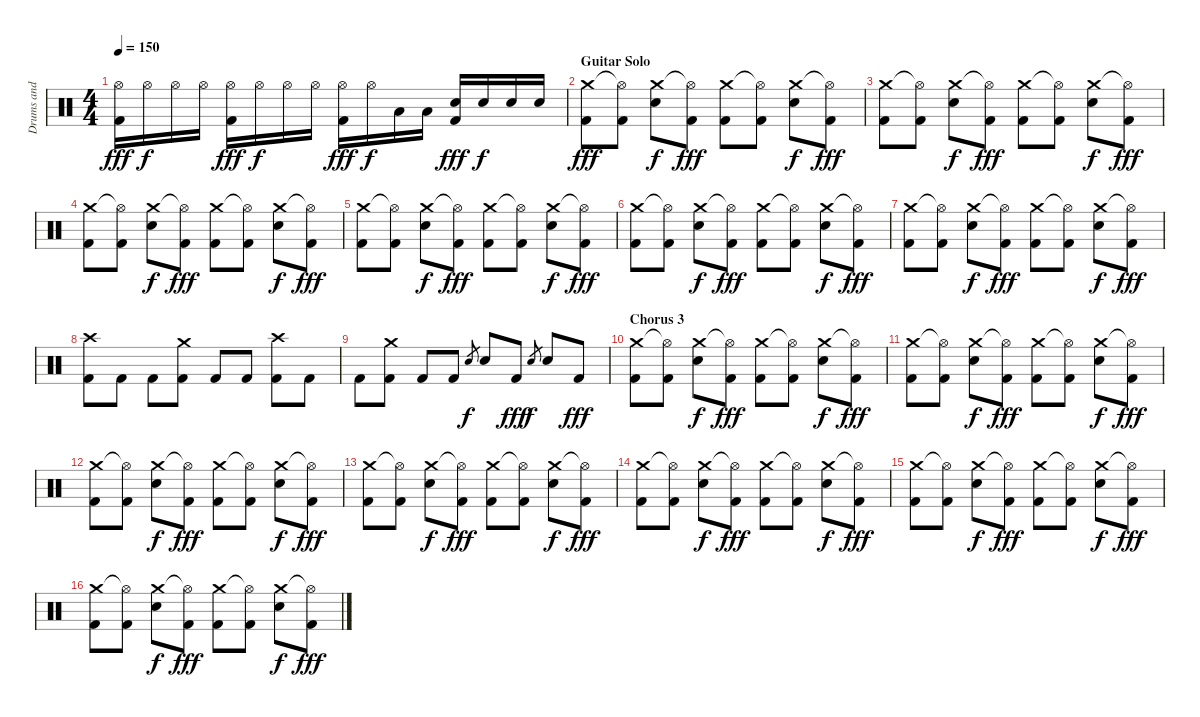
\track ("Drums and Percussion" "Drums and ") {instrument percussion}
\staff {score}
\articulation defaults
\ts (4 4)
\tempo 150
\clef neutral
\ks c
("Hi-Hat (open)" "Kick (hit) 2").16{dy fff} "Hi-Hat (open)".16{dy f} "Hi-Hat (open)".16 "Hi-Hat (open)".16 ("Hi-Hat (open)" "Kick (hit) 2").16{dy fff} "Hi-Hat (open)".16{dy f} "Hi-Hat (open)".16 "Hi-Hat (open)".16 ("Hi-Hat (open)" "Kick (hit) 2").16{dy fff} "Hi-Hat (open)".16{dy f} "Low Tom (hit)".16 "Low Tom (hit)".16 ("Electric Snare (hit)" "Kick (hit) 2").16{dy fff} "Electric Snare (hit)".16{dy f} "Electric Snare (hit)".16 "Electric Snare (hit)".16 |
\section ("" "Guitar Solo")
("Crash medium (hit)" "Kick (hit) 2").8{dy fff} ("Hi-Hat (open)"{t} "Kick (hit) 2").8 ("Crash medium (hit)" "Electric Snare (hit)").8{dy f} ("Hi-Hat (open)"{t} "Kick (hit) 2").8{dy fff} ("Crash medium (hit)" "Kick (hit) 2").8 ("Hi-Hat (open)"{t} "Kick (hit) 2").8 ("Crash medium (hit)" "Electric Snare (hit)").8{dy f} ("Hi-Hat (open)"{t} "Kick (hit) 2").8{dy fff} |
("Crash medium (hit)" "Kick (hit) 2").8 ("Hi-Hat (open)"{t} "Kick (hit) 2").8 ("Crash medium (hit)" "Electric Snare (hit)").8{dy f} ("Hi-Hat (open)"{t} "Kick (hit) 2").8{dy fff} ("Crash medium (hit)" "Kick (hit) 2").8 ("Hi-Hat (open)"{t} "Kick (hit) 2").8 ("Crash medium (hit)" "Electric Snare (hit)").8{dy f} ("Hi-Hat (open)"{t} "Kick (hit) 2").8{dy fff} |
("Crash medium (hit)" "Kick (hit) 2").8 ("Hi-Hat (open)"{t} "Kick (hit) 2").8 ("Crash medium (hit)" "Electric Snare (hit)").8{dy f} ("Hi-Hat (open)"{t} "Kick (hit) 2").8{dy fff} ("Crash medium (hit)" "Kick (hit) 2").8 ("Hi-Hat (open)"{t} "Kick (hit) 2").8 ("Crash medium (hit)" "Electric Snare (hit)").8{dy f} ("Hi-Hat (open)"{t} "Kick (hit) 2").8{dy fff} |
("Crash medium (hit)" "Kick (hit) 2").8 ("Hi-Hat (open)"{t} "Kick (hit) 2").8 ("Crash medium (hit)" "Electric Snare (hit)").8{dy f} ("Hi-Hat (open)"{t} "Kick (hit) 2").8{dy fff} ("Crash medium (hit)" "Kick (hit) 2").8 ("Hi-Hat (open)"{t} "Kick (hit) 2").8 ("Crash medium (hit)" "Electric Snare (hit)").8{dy f} ("Hi-Hat (open)"{t} "Kick (hit) 2").8{dy fff} |
("Crash medium (hit)" "Kick (hit) 2").8 ("Hi-Hat (open)"{t} "Kick (hit) 2").8 ("Crash medium (hit)" "Electric Snare (hit)").8{dy f} ("Hi-Hat (open)"{t} "Kick (hit) 2").8{dy fff} ("Crash medium (hit)" "Kick (hit) 2").8 ("Hi-Hat (open)"{t} "Kick (hit) 2").8 ("Crash medium (hit)" "Electric Snare (hit)").8{dy f} ("Hi-Hat (open)"{t} "Kick (hit) 2").8{dy fff} |
("Crash medium (hit)" "Kick (hit) 2").8 ("Hi-Hat (open)"{t} "Kick (hit) 2").8 ("Crash medium (hit)" "Electric Snare (hit)").8{dy f} ("Hi-Hat (open)"{t} "Kick (hit) 2").8{dy fff} ("Crash medium (hit)" "Kick (hit) 2").8 ("Hi-Hat (open)"{t} "Kick (hit) 2").8 ("Crash medium (hit)" "Electric Snare (hit)").8{dy f} ("Hi-Hat (open)"{t} "Kick (hit) 2").8{dy fff} |
("Crash high (hit)" "Kick (hit) 2").8 "Kick (hit) 2".8 "Kick (hit) 2".8 ("Crash medium (hit)" "Kick (hit) 2").8 "Kick (hit) 2".8 "Kick (hit) 2".8 ("Crash high (hit)" "Kick (hit) 2").8 "Kick (hit) 2".8 |
"Kick (hit) 2".8 ("Crash medium (hit)" "Kick (hit) 2").8 "Kick (hit) 2".8 "Kick (hit) 2".8 "Electric Snare (hit)".8{gr dy f} "Electric Snare (hit)".8 "Kick (hit) 2".8{dy fff} "Electric Snare (hit)".8{gr dy f} "Electric Snare (hit)".8 "Kick (hit) 2".8{dy fff} |
\section ("" "Chorus 3")
("Crash medium (hit)" "Kick (hit) 2").8 ("Hi-Hat (open)"{t} "Kick (hit) 2").8 ("Crash medium (hit)" "Electric Snare (hit)").8{dy f} ("Hi-Hat (open)"{t} "Kick (hit) 2").8{dy fff} ("Crash medium (hit)" "Kick (hit) 2").8 ("Hi-Hat (open)"{t} "Kick (hit) 2").8 ("Crash medium (hit)" "Electric Snare (hit)").8{dy f} ("Hi-Hat (open)"{t} "Kick (hit) 2").8{dy fff} |
("Crash medium (hit)" "Kick (hit) 2").8 ("Hi-Hat (open)"{t} "Kick (hit) 2").8 ("Crash medium (hit)" "Electric Snare (hit)").8{dy f} ("Hi-Hat (open)"{t} "Kick (hit) 2").8{dy fff} ("Crash medium (hit)" "Kick (hit) 2").8 ("Hi-Hat (open)"{t} "Kick (hit) 2").8 ("Crash medium (hit)" "Electric Snare (hit)").8{dy f} ("Hi-Hat (open)"{t} "Kick (hit) 2").8{dy fff} |
("Crash medium (hit)" "Kick (hit) 2").8 ("Hi-Hat (open)"{t} "Kick (hit) 2").8 ("Crash medium (hit)" "Electric Snare (hit)").8{dy f} ("Hi-Hat (open)"{t} "Kick (hit) 2").8{dy fff} ("Crash medium (hit)" "Kick (hit) 2").8 ("Hi-Hat (open)"{t} "Kick (hit) 2").8 ("Crash medium (hit)" "Electric Snare (hit)").8{dy f} ("Hi-Hat (open)"{t} "Kick (hit) 2").8{dy fff} |
("Crash medium (hit)" "Kick (hit) 2").8 ("Hi-Hat (open)"{t} "Kick (hit) 2").8 ("Crash medium (hit)" "Electric Snare (hit)").8{dy f} ("Hi-Hat (open)"{t} "Kick (hit) 2").8{dy fff} ("Crash medium (hit)" "Kick (hit) 2").8 ("Hi-Hat (open)"{t} "Kick (hit) 2").8 ("Crash medium (hit)" "Electric Snare (hit)").8{dy f} ("Hi-Hat (open)"{t} "Kick (hit) 2").8{dy fff} |
("Crash medium (hit)" "Kick (hit) 2").8 ("Hi-Hat (open)"{t} "Kick (hit) 2").8 ("Crash medium (hit)" "Electric Snare (hit)").8{dy f} ("Hi-Hat (open)"{t} "Kick (hit) 2").8{dy fff} ("Crash medium (hit)" "Kick (hit) 2").8 ("Hi-Hat (open)"{t} "Kick (hit) 2").8 ("Crash medium (hit)" "Electric Snare (hit)").8{dy f} ("Hi-Hat (open)"{t} "Kick (hit) 2").8{dy fff} |
("Crash medium (hit)" "Kick (hit) 2").8 ("Hi-Hat (open)"{t} "Kick (hit) 2").8 ("Crash medium (hit)" "Electric Snare (hit)").8{dy f} ("Hi-Hat (open)"{t} "Kick (hit) 2").8{dy fff} ("Crash medium (hit)" "Kick (hit) 2").8 ("Hi-Hat (open)"{t} "Kick (hit) 2").8 ("Crash medium (hit)" "Electric Snare (hit)").8{dy f} ("Hi-Hat (open)"{t} "Kick (hit) 2").8{dy fff} |
("Crash medium (hit)" "Kick (hit) 2").8 ("Hi-Hat (open)"{t} "Kick (hit) 2").8 ("Crash medium (hit)" "Electric Snare (hit)").8{dy f} ("Hi-Hat (open)"{t} "Kick (hit) 2").8{dy fff} ("Crash medium (hit)" "Kick (hit) 2").8 ("Hi-Hat (open)"{t} "Kick (hit) 2").8 ("Crash medium (hit)" "Electric Snare (hit)").8{dy f} ("Hi-Hat (open)"{t} "Kick (hit) 2").8{dy fff}
